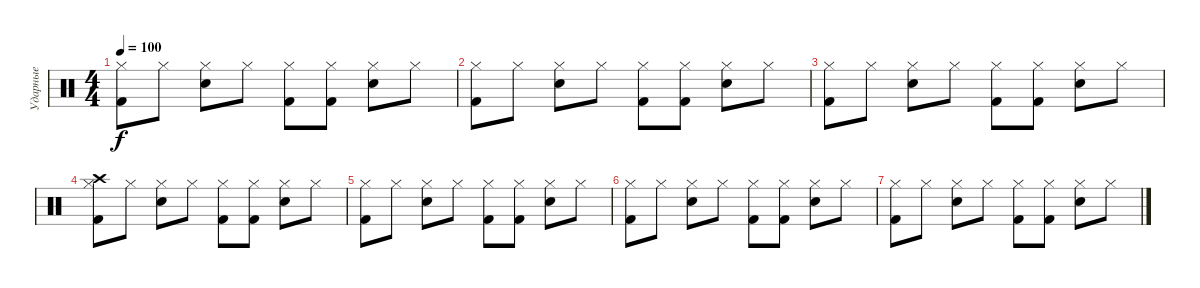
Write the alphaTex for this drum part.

\track ("Ударные" "Ударные") {instrument percussion}
\staff {score}
\articulation defaults
\ts (4 4)
\tempo 100
\clef neutral
\ks c
("Hi-Hat (closed)" "Kick (hit) 2").8{dy f} "Hi-Hat (closed)".8 ("Hi-Hat (closed)" "Electric Snare (hit)").8 "Hi-Hat (closed)".8 ("Hi-Hat (closed)" "Kick (hit) 2").8 ("Hi-Hat (closed)" "Kick (hit) 2").8 ("Hi-Hat (closed)" "Electric Snare (hit)").8 "Hi-Hat (closed)".8 |
("Hi-Hat (closed)" "Kick (hit) 2").8 "Hi-Hat (closed)".8 ("Hi-Hat (closed)" "Electric Snare (hit)").8 "Hi-Hat (closed)".8 ("Hi-Hat (closed)" "Kick (hit) 2").8 ("Hi-Hat (closed)" "Kick (hit) 2").8 ("Hi-Hat (closed)" "Electric Snare (hit)").8 "Hi-Hat (closed)".8 |
("Hi-Hat (closed)" "Kick (hit) 2").8 "Hi-Hat (closed)".8 ("Hi-Hat (closed)" "Electric Snare (hit)").8 "Hi-Hat (closed)".8 ("Hi-Hat (closed)" "Kick (hit) 2").8 ("Hi-Hat (closed)" "Kick (hit) 2").8 ("Hi-Hat (closed)" "Electric Snare (hit)").8 "Hi-Hat (closed)".8 |
("Hi-Hat (closed)" "Crash high (hit)" "Kick (hit) 2").8 "Hi-Hat (closed)".8 ("Hi-Hat (closed)" "Electric Snare (hit)").8 "Hi-Hat (closed)".8 ("Hi-Hat (closed)" "Kick (hit) 2").8 ("Hi-Hat (closed)" "Kick (hit) 2").8 ("Hi-Hat (closed)" "Electric Snare (hit)").8 "Hi-Hat (closed)".8 |
("Hi-Hat (closed)" "Kick (hit) 2").8 "Hi-Hat (closed)".8 ("Hi-Hat (closed)" "Electric Snare (hit)").8 "Hi-Hat (closed)".8 ("Hi-Hat (closed)" "Kick (hit) 2").8 ("Hi-Hat (closed)" "Kick (hit) 2").8 ("Hi-Hat (closed)" "Electric Snare (hit)").8 "Hi-Hat (closed)".8 |
("Hi-Hat (closed)" "Kick (hit) 2").8 "Hi-Hat (closed)".8 ("Hi-Hat (closed)" "Electric Snare (hit)").8 "Hi-Hat (closed)".8 ("Hi-Hat (closed)" "Kick (hit) 2").8 ("Hi-Hat (closed)" "Kick (hit) 2").8 ("Hi-Hat (closed)" "Electric Snare (hit)").8 "Hi-Hat (closed)".8 |
("Hi-Hat (closed)" "Kick (hit) 2").8 "Hi-Hat (closed)".8 ("Hi-Hat (closed)" "Electric Snare (hit)").8 "Hi-Hat (closed)".8 ("Hi-Hat (closed)" "Kick (hit) 2").8 ("Hi-Hat (closed)" "Kick (hit) 2").8 ("Hi-Hat (closed)" "Electric Snare (hit)").8 "Hi-Hat (closed)".8
